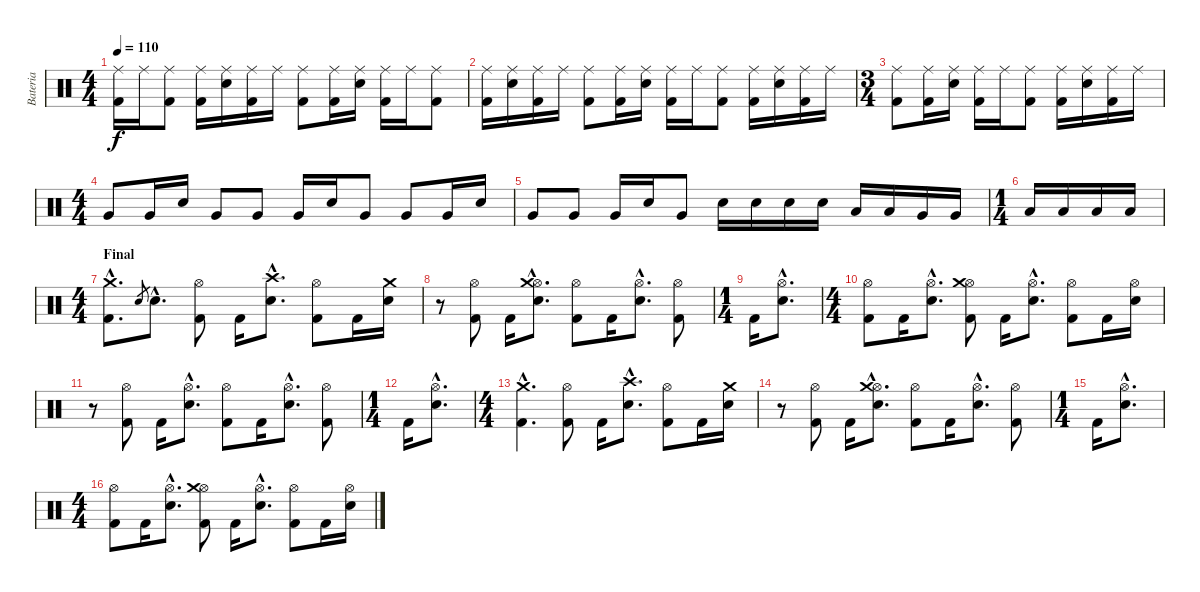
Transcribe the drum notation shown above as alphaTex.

\track ("Bateria" "Bateria") {instrument percussion}
\staff {score}
\articulation defaults
\ts (4 4)
\tempo 110
\clef neutral
\ks c
("Ride (middle)" "Kick (hit) 2").16{dy f} "Ride (middle)".16 ("Ride (middle)" "Kick (hit) 2").8 ("Ride (middle)" "Kick (hit) 2").16 ("Ride (middle)" "Snare (hit) 2").16 ("Ride (middle)" "Kick (hit) 2").16 "Ride (middle)".16 ("Ride (middle)" "Kick (hit) 2").8 ("Ride (middle)" "Kick (hit) 2").16 ("Ride (middle)" "Snare (hit) 2").16 ("Ride (middle)" "Kick (hit) 2").16 "Ride (middle)".16 ("Ride (middle)" "Kick (hit) 2").8 |
("Ride (middle)" "Kick (hit) 2").16 ("Ride (middle)" "Snare (hit) 2").16 ("Ride (middle)" "Kick (hit) 2").16 "Ride (middle)".16 ("Ride (middle)" "Kick (hit) 2").8 ("Ride (middle)" "Kick (hit) 2").16 ("Ride (middle)" "Snare (hit) 2").16 ("Ride (middle)" "Kick (hit) 2").16 "Ride (middle)".16 ("Ride (middle)" "Kick (hit) 2").8 ("Ride (middle)" "Kick (hit) 2").16 ("Ride (middle)" "Snare (hit) 2").16 ("Ride (middle)" "Kick (hit) 2").16 "Ride (middle)".16 |
\ts (3 4)
("Ride (middle)" "Kick (hit) 2").8 ("Ride (middle)" "Kick (hit) 2").16 ("Ride (middle)" "Snare (hit) 2").16 ("Ride (middle)" "Kick (hit) 2").16 "Ride (middle)".16 ("Ride (middle)" "Kick (hit) 2").8 ("Ride (middle)" "Kick (hit) 2").16 ("Ride (middle)" "Snare (hit) 2").16 ("Ride (middle)" "Kick (hit) 2").16 "Ride (middle)".16 |
\ts (4 4)
"Very Low Tom (hit)".8 "Very Low Tom (hit)".16 "Snare (hit) 2".16 "Very Low Tom (hit)".8 "Very Low Tom (hit)".8 "Very Low Tom (hit)".16 "Snare (hit) 2".16 "Very Low Tom (hit)".8 "Very Low Tom (hit)".8 "Very Low Tom (hit)".16 "Snare (hit) 2".16 |
"Very Low Tom (hit)".8 "Very Low Tom (hit)".8 "Very Low Tom (hit)".16 "Snare (hit) 2".16 "Very Low Tom (hit)".8 "Snare (hit) 2".16 "Snare (hit) 2".16 "Snare (hit) 2".16 "Snare (hit) 2".16 "Low Tom (hit)".16 "Low Tom (hit)".16 "Very Low Tom (hit)".16 "Very Low Tom (hit)".16 |
\ts (1 4)
"Low Floor Tom (hit)".16 "Low Floor Tom (hit)".16 "Low Floor Tom (hit)".16 "Low Floor Tom (hit)".16 |
\ts (4 4)
\section ("" "Final")
("Crash medium (hit)"{hac} "Kick (hit) 2"{hac}).8{d} "Snare (hit) 2".8{gr} "Snare (hit) 2"{hac}.8{d} ("Hi-Hat (open)" "Kick (hit) 2").8 "Kick (hit) 2".16 ("Crash high (hit)"{hac} "Snare (hit) 2"{hac}).8{d} ("Hi-Hat (open)" "Kick (hit) 2").8 "Kick (hit) 2".16 ("Snare (hit) 2" "Crash medium (hit)").16 |
r.8 ("Hi-Hat (open)" "Kick (hit) 2").8 "Kick (hit) 2".16 ("Snare (hit) 2"{hac} "Hi-Hat (open)"{hac} "Crash medium (hit)"{hac}).8{d} ("Hi-Hat (open)" "Kick (hit) 2").8 "Kick (hit) 2".16 ("Snare (hit) 2"{hac} "Hi-Hat (open)"{hac}).8{d} ("Hi-Hat (open)" "Kick (hit) 2").8 |
\ts (1 4)
"Kick (hit) 2".16 ("Snare (hit) 2"{hac} "Hi-Hat (open)"{hac}).8{d} |
\ts (4 4)
("Hi-Hat (open)" "Kick (hit) 2").8 "Kick (hit) 2".16 ("Hi-Hat (open)"{hac} "Snare (hit) 2"{hac}).8{d} ("Hi-Hat (open)" "Kick (hit) 2" "Crash medium (hit)").8 "Kick (hit) 2".16 ("Hi-Hat (open)"{hac} "Snare (hit) 2"{hac}).8{d} ("Hi-Hat (open)" "Kick (hit) 2").8 "Kick (hit) 2".16 ("Hi-Hat (open)" "Snare (hit) 2").16 |
r.8 ("Hi-Hat (open)" "Kick (hit) 2").8 "Kick (hit) 2".16 ("Snare (hit) 2"{hac} "Hi-Hat (open)"{hac}).8{d} ("Hi-Hat (open)" "Kick (hit) 2").8 "Kick (hit) 2".16 ("Snare (hit) 2"{hac} "Hi-Hat (open)"{hac}).8{d} ("Hi-Hat (open)" "Kick (hit) 2").8 |
\ts (1 4)
"Kick (hit) 2".16 ("Snare (hit) 2"{hac} "Hi-Hat (open)"{hac}).8{d} |
\ts (4 4)
("Crash medium (hit)"{hac} "Kick (hit) 2"{hac}).4{d} ("Hi-Hat (open)" "Kick (hit) 2").8 "Kick (hit) 2".16 ("Crash high (hit)"{hac} "Snare (hit) 2"{hac}).8{d} ("Hi-Hat (open)" "Kick (hit) 2").8 "Kick (hit) 2".16 ("Snare (hit) 2" "Crash medium (hit)").16 |
r.8 ("Hi-Hat (open)" "Kick (hit) 2").8 "Kick (hit) 2".16 ("Snare (hit) 2"{hac} "Hi-Hat (open)"{hac} "Crash medium (hit)"{hac}).8{d} ("Hi-Hat (open)" "Kick (hit) 2").8 "Kick (hit) 2".16 ("Snare (hit) 2"{hac} "Hi-Hat (open)"{hac}).8{d} ("Hi-Hat (open)" "Kick (hit) 2").8 |
\ts (1 4)
"Kick (hit) 2".16 ("Snare (hit) 2"{hac} "Hi-Hat (open)"{hac}).8{d} |
\ts (4 4)
("Hi-Hat (open)" "Kick (hit) 2").8 "Kick (hit) 2".16 ("Hi-Hat (open)"{hac} "Snare (hit) 2"{hac}).8{d} ("Hi-Hat (open)" "Kick (hit) 2" "Crash medium (hit)").8 "Kick (hit) 2".16 ("Hi-Hat (open)"{hac} "Snare (hit) 2"{hac}).8{d} ("Hi-Hat (open)" "Kick (hit) 2").8 "Kick (hit) 2".16 ("Hi-Hat (open)" "Snare (hit) 2").16
